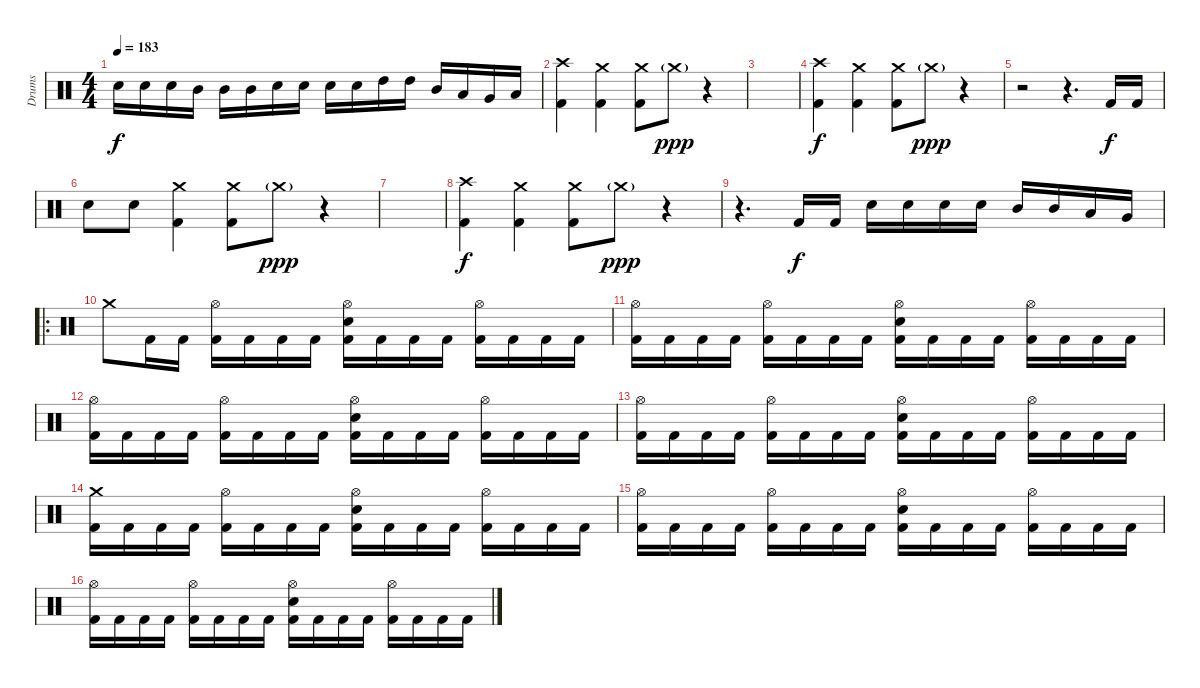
\track ("Drums" "Drums") {instrument percussion}
\staff {score}
\articulation defaults
\ts (4 4)
\tempo 183
\clef neutral
\ks c "Electric Snare (hit)".16{dy f} "Electric Snare (hit)".16 "Electric Snare (hit)".16 "Mid Tom (hit)".16 "Mid Tom (hit)".16 "Mid Tom (hit)".16 "Electric Snare (hit)".16 "Electric Snare (hit)".16 "Electric Snare (hit)".16 "Electric Snare (hit)".16 "High Tom (hit)".16 "High Tom (hit)".16 "Mid Tom (hit)".16 "Low Tom (hit)".16 "Very Low Tom (hit)".16 "Low Floor Tom (hit)".16
|
("Crash high (hit)" "Kick (hit) 2").4 ("Crash medium (hit)" "Kick (hit) 2").4 ("Crash medium (hit)" "Kick (hit) 2").8 "Crash medium (hit)"{g}.8{dy ppp} r.4 |
|
("Crash high (hit)" "Kick (hit) 2").4{dy f} ("Crash medium (hit)" "Kick (hit) 2").4 ("Crash medium (hit)" "Kick (hit) 2").8 "Crash medium (hit)"{g}.8{dy ppp} r.4 |
r.2 r.4{d} "Kick (hit) 2".16{dy f} "Kick (hit) 2".16 |
"Electric Snare (hit)".8 "Electric Snare (hit)".8 ("Crash medium (hit)" "Kick (hit) 2").4 ("Crash medium (hit)" "Kick (hit) 2").8 "Crash medium (hit)"{g}.8{dy ppp} r.4 |
|
("Crash high (hit)" "Kick (hit) 2").4{dy f} ("Crash medium (hit)" "Kick (hit) 2").4 ("Crash medium (hit)" "Kick (hit) 2").8 "Crash medium (hit)"{g}.8{dy ppp} r.4 |
r.4{d} "Kick (hit) 2".16{dy f} "Kick (hit) 2".16 "Electric Snare (hit)".16 "Electric Snare (hit)".16 "Electric Snare (hit)".16 "Electric Snare (hit)".16 "Mid Tom (hit)".16 "Mid Tom (hit)".16 "Low Tom (hit)".16 "Very Low Tom (hit)".16 |
\ro "Crash medium (hit)".8 "Kick (hit) 2".16 "Kick (hit) 2".16
("Hi-Hat (open)" "Kick (hit) 2").16 "Kick (hit) 2".16 "Kick (hit) 2".16 "Kick (hit) 2".16 ("Hi-Hat (open)" "Electric Snare (hit)" "Kick (hit) 2").16 "Kick (hit) 2".16 "Kick (hit) 2".16 "Kick (hit) 2".16 ("Hi-Hat (open)" "Kick (hit) 2").16 "Kick (hit) 2".16 "Kick (hit) 2".16 "Kick (hit) 2".16 |
("Hi-Hat (open)" "Kick (hit) 2").16 "Kick (hit) 2".16 "Kick (hit) 2".16 "Kick (hit) 2".16 ("Hi-Hat (open)" "Kick (hit) 2").16 "Kick (hit) 2".16 "Kick (hit) 2".16 "Kick (hit) 2".16 ("Hi-Hat (open)" "Electric Snare (hit)" "Kick (hit) 2").16 "Kick (hit) 2".16 "Kick (hit) 2".16 "Kick (hit) 2".16 ("Hi-Hat (open)" "Kick (hit) 2").16 "Kick (hit) 2".16 "Kick (hit) 2".16 "Kick (hit) 2".16 |
("Hi-Hat (open)" "Kick (hit) 2").16 "Kick (hit) 2".16 "Kick (hit) 2".16 "Kick (hit) 2".16 ("Hi-Hat (open)" "Kick (hit) 2").16 "Kick (hit) 2".16 "Kick (hit) 2".16 "Kick (hit) 2".16 ("Hi-Hat (open)" "Electric Snare (hit)" "Kick (hit) 2").16 "Kick (hit) 2".16 "Kick (hit) 2".16 "Kick (hit) 2".16 ("Hi-Hat (open)" "Kick (hit) 2").16 "Kick (hit) 2".16 "Kick (hit) 2".16 "Kick (hit) 2".16 |
("Hi-Hat (open)" "Kick (hit) 2").16 "Kick (hit) 2".16 "Kick (hit) 2".16 "Kick (hit) 2".16 ("Hi-Hat (open)" "Kick (hit) 2").16 "Kick (hit) 2".16 "Kick (hit) 2".16 "Kick (hit) 2".16 ("Hi-Hat (open)" "Electric Snare (hit)" "Kick (hit) 2").16 "Kick (hit) 2".16 "Kick (hit) 2".16 "Kick (hit) 2".16 ("Hi-Hat (open)" "Kick (hit) 2").16 "Kick (hit) 2".16 "Kick (hit) 2".16 "Kick (hit) 2".16 |
("Crash medium (hit)" "Kick (hit) 2").16 "Kick (hit) 2".16 "Kick (hit) 2".16 "Kick (hit) 2".16 ("Hi-Hat (open)" "Kick (hit) 2").16 "Kick (hit) 2".16 "Kick (hit) 2".16 "Kick (hit) 2".16 ("Hi-Hat (open)" "Electric Snare (hit)" "Kick (hit) 2").16 "Kick (hit) 2".16 "Kick (hit) 2".16 "Kick (hit) 2".16 ("Hi-Hat (open)" "Kick (hit) 2").16 "Kick (hit) 2".16 "Kick (hit) 2".16 "Kick (hit) 2".16 |
("Hi-Hat (open)" "Kick (hit) 2").16 "Kick (hit) 2".16 "Kick (hit) 2".16 "Kick (hit) 2".16 ("Hi-Hat (open)" "Kick (hit) 2").16 "Kick (hit) 2".16 "Kick (hit) 2".16 "Kick (hit) 2".16 ("Hi-Hat (open)" "Electric Snare (hit)" "Kick (hit) 2").16 "Kick (hit) 2".16 "Kick (hit) 2".16 "Kick (hit) 2".16 ("Hi-Hat (open)" "Kick (hit) 2").16 "Kick (hit) 2".16 "Kick (hit) 2".16 "Kick (hit) 2".16 |
("Hi-Hat (open)" "Kick (hit) 2").16 "Kick (hit) 2".16 "Kick (hit) 2".16 "Kick (hit) 2".16 ("Hi-Hat (open)" "Kick (hit) 2").16 "Kick (hit) 2".16 "Kick (hit) 2".16 "Kick (hit) 2".16 ("Hi-Hat (open)" "Electric Snare (hit)" "Kick (hit) 2").16 "Kick (hit) 2".16 "Kick (hit) 2".16 "Kick (hit) 2".16 ("Hi-Hat (open)" "Kick (hit) 2").16 "Kick (hit) 2".16 "Kick (hit) 2".16 "Kick (hit) 2".16
